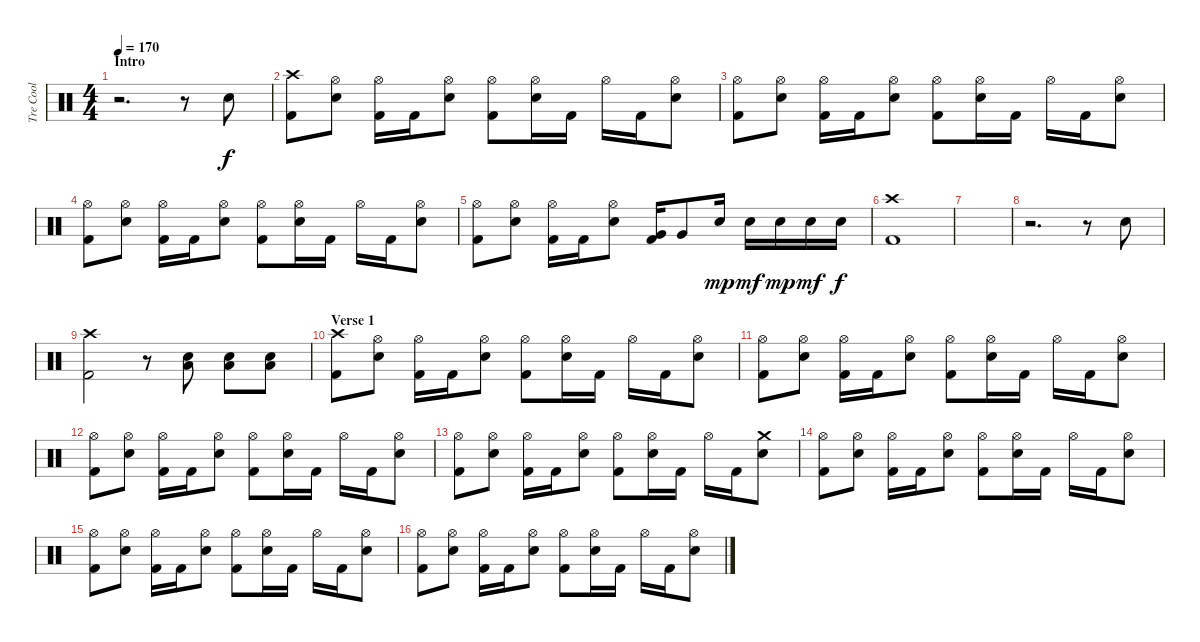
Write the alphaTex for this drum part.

\track ("Tre Cool" "Tre Cool") {instrument percussion}
\staff {score}
\articulation defaults
\ts (4 4)
\section ("" "Intro")
\tempo 170
\clef neutral
\ks c
r.2{d dy f} r.8 "Electric Snare (hit)".8 |
("Crash high (hit)" "Kick (hit) 2").8 ("Hi-Hat (open)" "Electric Snare (hit)").8 ("Hi-Hat (open)" "Kick (hit) 2").16 "Kick (hit) 2".16 ("Hi-Hat (open)" "Electric Snare (hit)").8 ("Hi-Hat (open)" "Kick (hit) 2").8 ("Hi-Hat (open)" "Electric Snare (hit)").16 "Kick (hit) 2".16 "Hi-Hat (open)".16 "Kick (hit) 2".16 ("Hi-Hat (open)" "Electric Snare (hit)").8 |
("Hi-Hat (open)" "Kick (hit) 2").8 ("Hi-Hat (open)" "Electric Snare (hit)").8 ("Hi-Hat (open)" "Kick (hit) 2").16 "Kick (hit) 2".16 ("Hi-Hat (open)" "Electric Snare (hit)").8 ("Hi-Hat (open)" "Kick (hit) 2").8 ("Hi-Hat (open)" "Electric Snare (hit)").16 "Kick (hit) 2".16 "Hi-Hat (open)".16 "Kick (hit) 2".16 ("Hi-Hat (open)" "Electric Snare (hit)").8 |
("Hi-Hat (open)" "Kick (hit) 2").8 ("Hi-Hat (open)" "Electric Snare (hit)").8 ("Hi-Hat (open)" "Kick (hit) 2").16 "Kick (hit) 2".16 ("Hi-Hat (open)" "Electric Snare (hit)").8 ("Hi-Hat (open)" "Kick (hit) 2").8 ("Hi-Hat (open)" "Electric Snare (hit)").16 "Kick (hit) 2".16 "Hi-Hat (open)".16 "Kick (hit) 2".16 ("Hi-Hat (open)" "Electric Snare (hit)").8 |
("Hi-Hat (open)" "Kick (hit) 2").8 ("Hi-Hat (open)" "Electric Snare (hit)").8 ("Hi-Hat (open)" "Kick (hit) 2").16 "Kick (hit) 2".16 ("Hi-Hat (open)" "Electric Snare (hit)").8 ("Very Low Tom (hit)" "Kick (hit) 2").16 "Very Low Tom (hit)".8 "Electric Snare (hit)".16{dy mp} "Electric Snare (hit)".16{dy mf} "Electric Snare (hit)".16{dy mp} "Electric Snare (hit)".16{dy mf} "Electric Snare (hit)".16{dy f} |
("Crash high (hit)" "Kick (hit) 2").1 |
|
r.2{d} r.8 "Electric Snare (hit)".8 |
("Crash high (hit)" "Kick (hit) 2").2 r.8 ("Electric Snare (hit)" "Low Floor Tom (hit)").8 ("Electric Snare (hit)" "Low Floor Tom (hit)").8 ("Electric Snare (hit)" "Low Floor Tom (hit)").8 |
\section ("" "Verse 1")
("Crash high (hit)" "Kick (hit) 2").8 ("Hi-Hat (open)" "Electric Snare (hit)").8 ("Hi-Hat (open)" "Kick (hit) 2").16 "Kick (hit) 2".16 ("Hi-Hat (open)" "Electric Snare (hit)").8 ("Hi-Hat (open)" "Kick (hit) 2").8 ("Hi-Hat (open)" "Electric Snare (hit)").16 "Kick (hit) 2".16 "Hi-Hat (open)".16 "Kick (hit) 2".16 ("Hi-Hat (open)" "Electric Snare (hit)").8 |
("Hi-Hat (open)" "Kick (hit) 2").8 ("Hi-Hat (open)" "Electric Snare (hit)").8 ("Hi-Hat (open)" "Kick (hit) 2").16 "Kick (hit) 2".16 ("Hi-Hat (open)" "Electric Snare (hit)").8 ("Hi-Hat (open)" "Kick (hit) 2").8 ("Hi-Hat (open)" "Electric Snare (hit)").16 "Kick (hit) 2".16 "Hi-Hat (open)".16 "Kick (hit) 2".16 ("Hi-Hat (open)" "Electric Snare (hit)").8 |
("Hi-Hat (open)" "Kick (hit) 2").8 ("Hi-Hat (open)" "Electric Snare (hit)").8 ("Hi-Hat (open)" "Kick (hit) 2").16 "Kick (hit) 2".16 ("Hi-Hat (open)" "Electric Snare (hit)").8 ("Hi-Hat (open)" "Kick (hit) 2").8 ("Hi-Hat (open)" "Electric Snare (hit)").16 "Kick (hit) 2".16 "Hi-Hat (open)".16 "Kick (hit) 2".16 ("Hi-Hat (open)" "Electric Snare (hit)").8 |
("Hi-Hat (open)" "Kick (hit) 2").8 ("Hi-Hat (open)" "Electric Snare (hit)").8 ("Hi-Hat (open)" "Kick (hit) 2").16 "Kick (hit) 2".16 ("Hi-Hat (open)" "Electric Snare (hit)").8 ("Hi-Hat (open)" "Kick (hit) 2").8 ("Hi-Hat (open)" "Electric Snare (hit)").16 "Kick (hit) 2".16 "Hi-Hat (open)".16 "Kick (hit) 2".16 ("Crash medium (hit)" "Electric Snare (hit)").8 |
("Hi-Hat (open)" "Kick (hit) 2").8 ("Hi-Hat (open)" "Electric Snare (hit)").8 ("Hi-Hat (open)" "Kick (hit) 2").16 "Kick (hit) 2".16 ("Hi-Hat (open)" "Electric Snare (hit)").8 ("Hi-Hat (open)" "Kick (hit) 2").8 ("Hi-Hat (open)" "Electric Snare (hit)").16 "Kick (hit) 2".16 "Hi-Hat (open)".16 "Kick (hit) 2".16 ("Hi-Hat (open)" "Electric Snare (hit)").8 |
("Hi-Hat (open)" "Kick (hit) 2").8 ("Hi-Hat (open)" "Electric Snare (hit)").8 ("Hi-Hat (open)" "Kick (hit) 2").16 "Kick (hit) 2".16 ("Hi-Hat (open)" "Electric Snare (hit)").8 ("Hi-Hat (open)" "Kick (hit) 2").8 ("Hi-Hat (open)" "Electric Snare (hit)").16 "Kick (hit) 2".16 "Hi-Hat (open)".16 "Kick (hit) 2".16 ("Hi-Hat (open)" "Electric Snare (hit)").8 |
("Hi-Hat (open)" "Kick (hit) 2").8 ("Hi-Hat (open)" "Electric Snare (hit)").8 ("Hi-Hat (open)" "Kick (hit) 2").16 "Kick (hit) 2".16 ("Hi-Hat (open)" "Electric Snare (hit)").8 ("Hi-Hat (open)" "Kick (hit) 2").8 ("Hi-Hat (open)" "Electric Snare (hit)").16 "Kick (hit) 2".16 "Hi-Hat (open)".16 "Kick (hit) 2".16 ("Hi-Hat (open)" "Electric Snare (hit)").8
